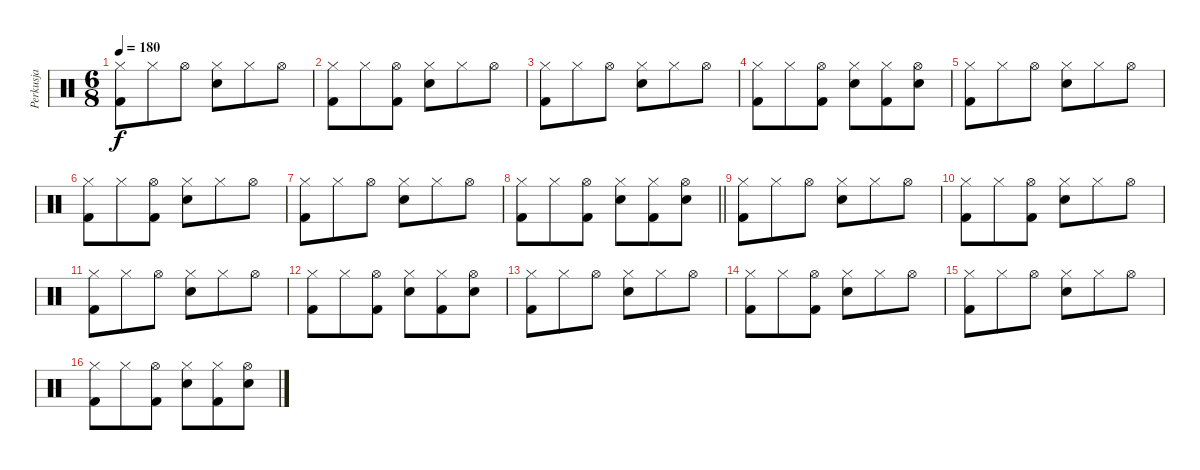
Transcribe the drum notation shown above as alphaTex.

\track ("Perkusja" "Perkusja") {instrument percussion}
\staff {score}
\articulation defaults
\ts (6 8)
\tempo 180
\clef neutral
\ks c
("Hi-Hat (closed)" "Kick (hit) 2").8{dy f} "Hi-Hat (closed)".8 "Hi-Hat (open)".8 ("Hi-Hat (closed)" "Snare (hit) 2").8 "Hi-Hat (closed)".8 "Hi-Hat (open)".8 |
("Hi-Hat (closed)" "Kick (hit) 2").8 "Hi-Hat (closed)".8 ("Hi-Hat (open)" "Kick (hit) 2").8 ("Hi-Hat (closed)" "Snare (hit) 2").8 "Hi-Hat (closed)".8 "Hi-Hat (open)".8 |
("Hi-Hat (closed)" "Kick (hit) 2").8 "Hi-Hat (closed)".8 "Hi-Hat (open)".8 ("Hi-Hat (closed)" "Snare (hit) 2").8 "Hi-Hat (closed)".8 "Hi-Hat (open)".8 |
("Hi-Hat (closed)" "Kick (hit) 2").8 "Hi-Hat (closed)".8 ("Hi-Hat (open)" "Kick (hit) 2").8 ("Hi-Hat (closed)" "Snare (hit) 2").8 ("Hi-Hat (closed)" "Kick (hit) 2").8 ("Hi-Hat (open)" "Snare (hit) 2").8 |
("Hi-Hat (closed)" "Kick (hit) 2").8 "Hi-Hat (closed)".8 "Hi-Hat (open)".8 ("Hi-Hat (closed)" "Snare (hit) 2").8 "Hi-Hat (closed)".8 "Hi-Hat (open)".8 |
("Hi-Hat (closed)" "Kick (hit) 2").8 "Hi-Hat (closed)".8 ("Hi-Hat (open)" "Kick (hit) 2").8 ("Hi-Hat (closed)" "Snare (hit) 2").8 "Hi-Hat (closed)".8 "Hi-Hat (open)".8 |
("Hi-Hat (closed)" "Kick (hit) 2").8 "Hi-Hat (closed)".8 "Hi-Hat (open)".8 ("Hi-Hat (closed)" "Snare (hit) 2").8 "Hi-Hat (closed)".8 "Hi-Hat (open)".8 |
\barLineRight lightlight
("Hi-Hat (closed)" "Kick (hit) 2").8 "Hi-Hat (closed)".8 ("Hi-Hat (open)" "Kick (hit) 2").8 ("Hi-Hat (closed)" "Snare (hit) 2").8 ("Hi-Hat (closed)" "Kick (hit) 2").8 ("Hi-Hat (open)" "Snare (hit) 2").8 |
("Hi-Hat (closed)" "Kick (hit) 2").8 "Hi-Hat (closed)".8 "Hi-Hat (open)".8 ("Hi-Hat (closed)" "Snare (hit) 2").8 "Hi-Hat (closed)".8 "Hi-Hat (open)".8 |
("Hi-Hat (closed)" "Kick (hit) 2").8 "Hi-Hat (closed)".8 ("Hi-Hat (open)" "Kick (hit) 2").8 ("Hi-Hat (closed)" "Snare (hit) 2").8 "Hi-Hat (closed)".8 "Hi-Hat (open)".8 |
("Hi-Hat (closed)" "Kick (hit) 2").8 "Hi-Hat (closed)".8 "Hi-Hat (open)".8 ("Hi-Hat (closed)" "Snare (hit) 2").8 "Hi-Hat (closed)".8 "Hi-Hat (open)".8 |
("Hi-Hat (closed)" "Kick (hit) 2").8 "Hi-Hat (closed)".8 ("Hi-Hat (open)" "Kick (hit) 2").8 ("Hi-Hat (closed)" "Snare (hit) 2").8 ("Hi-Hat (closed)" "Kick (hit) 2").8 ("Hi-Hat (open)" "Snare (hit) 2").8 |
("Hi-Hat (closed)" "Kick (hit) 2").8 "Hi-Hat (closed)".8 "Hi-Hat (open)".8 ("Hi-Hat (closed)" "Snare (hit) 2").8 "Hi-Hat (closed)".8 "Hi-Hat (open)".8 |
("Hi-Hat (closed)" "Kick (hit) 2").8 "Hi-Hat (closed)".8 ("Hi-Hat (open)" "Kick (hit) 2").8 ("Hi-Hat (closed)" "Snare (hit) 2").8 "Hi-Hat (closed)".8 "Hi-Hat (open)".8 |
("Hi-Hat (closed)" "Kick (hit) 2").8 "Hi-Hat (closed)".8 "Hi-Hat (open)".8 ("Hi-Hat (closed)" "Snare (hit) 2").8 "Hi-Hat (closed)".8 "Hi-Hat (open)".8 |
("Hi-Hat (closed)" "Kick (hit) 2").8 "Hi-Hat (closed)".8 ("Hi-Hat (open)" "Kick (hit) 2").8 ("Hi-Hat (closed)" "Snare (hit) 2").8 ("Hi-Hat (closed)" "Kick (hit) 2").8 ("Hi-Hat (open)" "Snare (hit) 2").8
